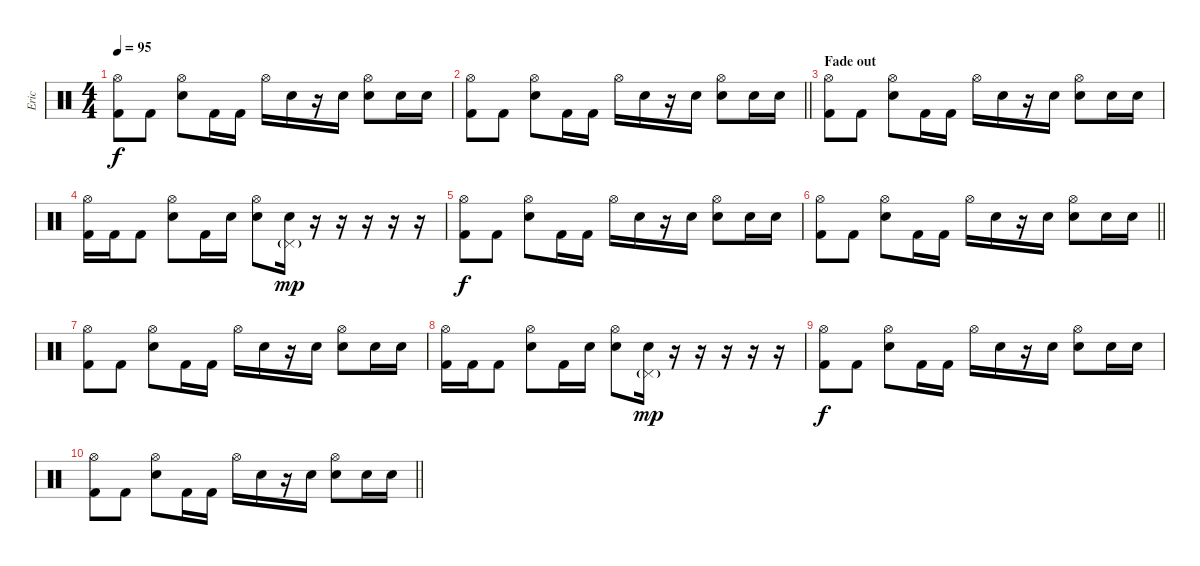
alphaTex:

\track ("Eric" "Eric") {instrument percussion}
\staff {score}
\articulation defaults
\ts (4 4)
\tempo 95
\clef neutral
\ks c
("Hi-Hat (open)" "Kick (hit) 2").8{dy f} "Kick (hit) 2".8 ("Hi-Hat (open)" "Electric Snare (hit)").8 "Kick (hit) 2".16 "Kick (hit) 2".16 "Hi-Hat (open)".16 "Electric Snare (hit)".16 r.16 "Electric Snare (hit)".16 ("Hi-Hat (open)" "Electric Snare (hit)").8 "Electric Snare (hit)".16 "Electric Snare (hit)".16 |
\barLineRight lightlight
("Hi-Hat (open)" "Kick (hit) 2").8 "Kick (hit) 2".8 ("Hi-Hat (open)" "Electric Snare (hit)").8 "Kick (hit) 2".16 "Kick (hit) 2".16 "Hi-Hat (open)".16 "Electric Snare (hit)".16 r.16 "Electric Snare (hit)".16 ("Hi-Hat (open)" "Electric Snare (hit)").8 "Electric Snare (hit)".16 "Electric Snare (hit)".16 |
\section ("" "Fade out")
("Hi-Hat (open)" "Kick (hit) 2").8 "Kick (hit) 2".8 ("Hi-Hat (open)" "Electric Snare (hit)").8 "Kick (hit) 2".16 "Kick (hit) 2".16 "Hi-Hat (open)".16 "Electric Snare (hit)".16 r.16 "Electric Snare (hit)".16 ("Hi-Hat (open)" "Electric Snare (hit)").8 "Electric Snare (hit)".16 "Electric Snare (hit)".16 |
("Hi-Hat (open)" "Kick (hit) 2").16 "Kick (hit) 2".16 "Kick (hit) 2".8 ("Hi-Hat (open)" "Electric Snare (hit)").8 "Kick (hit) 2".16 "Electric Snare (hit)".16 ("Hi-Hat (open)" "Electric Snare (hit)").8 ("Pedal Hi-Hat (hit)"{g} "Electric Snare (hit)").16{dy mp} r.16 r.16 r.16 r.16 r.16 |
("Hi-Hat (open)" "Kick (hit) 2").8{dy f} "Kick (hit) 2".8 ("Hi-Hat (open)" "Electric Snare (hit)").8 "Kick (hit) 2".16 "Kick (hit) 2".16 "Hi-Hat (open)".16 "Electric Snare (hit)".16 r.16 "Electric Snare (hit)".16 ("Hi-Hat (open)" "Electric Snare (hit)").8 "Electric Snare (hit)".16 "Electric Snare (hit)".16 |
\barLineRight lightlight
("Hi-Hat (open)" "Kick (hit) 2").8 "Kick (hit) 2".8 ("Hi-Hat (open)" "Electric Snare (hit)").8 "Kick (hit) 2".16 "Kick (hit) 2".16 "Hi-Hat (open)".16 "Electric Snare (hit)".16 r.16 "Electric Snare (hit)".16 ("Hi-Hat (open)" "Electric Snare (hit)").8 "Electric Snare (hit)".16 "Electric Snare (hit)".16 |
\section ("" "")
("Hi-Hat (open)" "Kick (hit) 2").8 "Kick (hit) 2".8 ("Hi-Hat (open)" "Electric Snare (hit)").8 "Kick (hit) 2".16 "Kick (hit) 2".16 "Hi-Hat (open)".16 "Electric Snare (hit)".16 r.16 "Electric Snare (hit)".16 ("Hi-Hat (open)" "Electric Snare (hit)").8 "Electric Snare (hit)".16 "Electric Snare (hit)".16 |
("Hi-Hat (open)" "Kick (hit) 2").16 "Kick (hit) 2".16 "Kick (hit) 2".8 ("Hi-Hat (open)" "Electric Snare (hit)").8 "Kick (hit) 2".16 "Electric Snare (hit)".16 ("Hi-Hat (open)" "Electric Snare (hit)").8 ("Pedal Hi-Hat (hit)"{g} "Electric Snare (hit)").16{dy mp} r.16 r.16 r.16 r.16 r.16 |
("Hi-Hat (open)" "Kick (hit) 2").8{dy f} "Kick (hit) 2".8 ("Hi-Hat (open)" "Electric Snare (hit)").8 "Kick (hit) 2".16 "Kick (hit) 2".16 "Hi-Hat (open)".16 "Electric Snare (hit)".16 r.16 "Electric Snare (hit)".16 ("Hi-Hat (open)" "Electric Snare (hit)").8 "Electric Snare (hit)".16 "Electric Snare (hit)".16 |
\barLineRight lightlight
("Hi-Hat (open)" "Kick (hit) 2").8 "Kick (hit) 2".8 ("Hi-Hat (open)" "Electric Snare (hit)").8 "Kick (hit) 2".16 "Kick (hit) 2".16 "Hi-Hat (open)".16 "Electric Snare (hit)".16 r.16 "Electric Snare (hit)".16 ("Hi-Hat (open)" "Electric Snare (hit)").8 "Electric Snare (hit)".16 "Electric Snare (hit)".16
